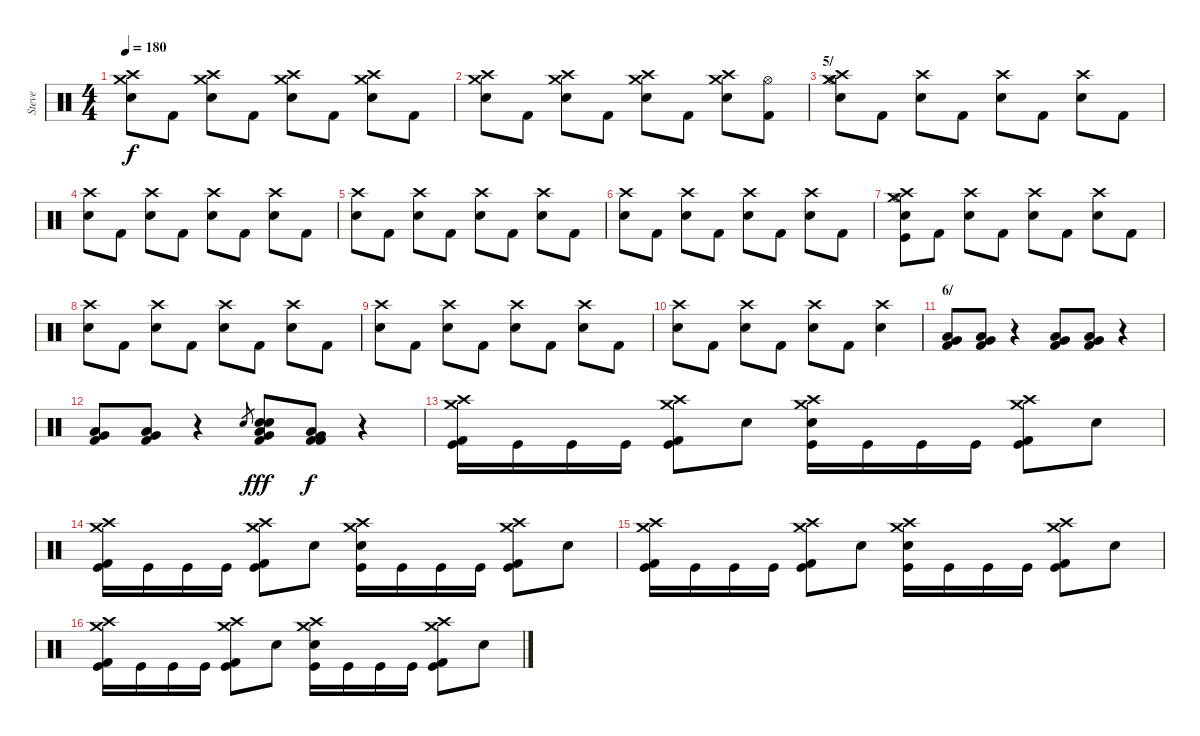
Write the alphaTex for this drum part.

\track ("Steve" "Steve") {instrument percussion}
\staff {score}
\articulation defaults
\ts (4 4)
\tempo 180
\clef neutral
\ks c
("Crash medium (hit)" "Crash high (hit)" "Electric Snare (hit)").8{dy f} "Kick (hit) 2".8 ("Crash medium (hit)" "Crash high (hit)" "Electric Snare (hit)").8 "Kick (hit) 2".8 ("Crash medium (hit)" "Crash high (hit)" "Electric Snare (hit)").8 "Kick (hit) 2".8 ("Crash high (hit)" "Crash medium (hit)" "Electric Snare (hit)").8 "Kick (hit) 2".8 |
("Crash medium (hit)" "Crash high (hit)" "Electric Snare (hit)").8 "Kick (hit) 2".8 ("Crash medium (hit)" "Crash high (hit)" "Electric Snare (hit)").8 "Kick (hit) 2".8 ("Crash medium (hit)" "Crash high (hit)" "Electric Snare (hit)").8 "Kick (hit) 2".8 ("Crash high (hit)" "Crash medium (hit)" "Electric Snare (hit)").8 ("Hi-Hat (open)" "Kick (hit) 2").8 |
\section ("" "5/")
("Crash medium (hit)" "Crash high (hit)" "Hi-Hat (open)" "Electric Snare (hit)").8 "Kick (hit) 2".8 ("Crash high (hit)" "Electric Snare (hit)").8 "Kick (hit) 2".8 ("Crash high (hit)" "Electric Snare (hit)").8 "Kick (hit) 2".8 ("Crash high (hit)" "Electric Snare (hit)").8 "Kick (hit) 2".8 |
("Crash high (hit)" "Electric Snare (hit)").8 "Kick (hit) 2".8 ("Crash high (hit)" "Electric Snare (hit)").8 "Kick (hit) 2".8 ("Crash high (hit)" "Electric Snare (hit)").8 "Kick (hit) 2".8 ("Crash high (hit)" "Electric Snare (hit)").8 "Kick (hit) 2".8 |
("Crash high (hit)" "Electric Snare (hit)").8 "Kick (hit) 2".8 ("Crash high (hit)" "Electric Snare (hit)").8 "Kick (hit) 2".8 ("Crash high (hit)" "Electric Snare (hit)").8 "Kick (hit) 2".8 ("Crash high (hit)" "Electric Snare (hit)").8 "Kick (hit) 2".8 |
("Crash high (hit)" "Electric Snare (hit)").8 "Kick (hit) 2".8 ("Crash high (hit)" "Electric Snare (hit)").8 "Kick (hit) 2".8 ("Crash high (hit)" "Electric Snare (hit)").8 "Kick (hit) 2".8 ("Crash high (hit)" "Electric Snare (hit)").8 "Kick (hit) 2".8 |
("Crash medium (hit)" "Crash high (hit)" "Hi-Hat (open)" "Kick (hit)" "Electric Snare (hit)").8 "Kick (hit) 2".8 ("Crash high (hit)" "Electric Snare (hit)").8 "Kick (hit) 2".8 ("Crash high (hit)" "Electric Snare (hit)").8 "Kick (hit) 2".8 ("Crash high (hit)" "Electric Snare (hit)").8 "Kick (hit) 2".8 |
("Crash high (hit)" "Electric Snare (hit)").8 "Kick (hit) 2".8 ("Crash high (hit)" "Electric Snare (hit)").8 "Kick (hit) 2".8 ("Crash high (hit)" "Electric Snare (hit)").8 "Kick (hit) 2".8 ("Crash high (hit)" "Electric Snare (hit)").8 "Kick (hit) 2".8 |
("Crash high (hit)" "Electric Snare (hit)").8 "Kick (hit) 2".8 ("Crash high (hit)" "Electric Snare (hit)").8 "Kick (hit) 2".8 ("Crash high (hit)" "Electric Snare (hit)").8 "Kick (hit) 2".8 ("Crash high (hit)" "Electric Snare (hit)").8 "Kick (hit) 2".8 |
("Crash high (hit)" "Electric Snare (hit)").8 "Kick (hit) 2".8 ("Crash high (hit)" "Electric Snare (hit)").8 "Kick (hit) 2".8 ("Crash high (hit)" "Electric Snare (hit)").8 "Kick (hit) 2".8 ("Crash high (hit)" "Electric Snare (hit)").4 |
\section ("" "6/ ")
("Kick (hit) 2" "Low Tom (hit)" "Very Low Tom (hit)").8 ("Kick (hit) 2" "Very Low Tom (hit)" "Low Floor Tom (hit)").8 r.4 ("Kick (hit) 2" "Low Tom (hit)" "Very Low Tom (hit)").8 ("Kick (hit) 2" "Very Low Tom (hit)" "Low Floor Tom (hit)").8 r.4 |
("Kick (hit) 2" "Low Tom (hit)" "Very Low Tom (hit)").8 ("Kick (hit) 2" "Very Low Tom (hit)" "Low Floor Tom (hit)").8 r.4 "Electric Snare (hit)".8{gr} ("Electric Snare (hit)" "Electric Snare (hit)" "Kick (hit) 2" "Low Tom (hit)" "Very Low Tom (hit)").8{dy fff} ("Kick (hit) 2" "Kick (hit) 2" "Very Low Tom (hit)" "Low Floor Tom (hit)").8{dy f} r.4 |
("Crash medium (hit)" "Crash high (hit)" "Kick (hit) 2" "Kick (hit)").16 "Kick (hit)".16 "Kick (hit)".16 "Kick (hit)".16 ("Crash high (hit)" "Crash medium (hit)" "Kick (hit) 2" "Kick (hit)").8 "Snare (hit)"{x}.8 ("Crash medium (hit)" "Crash high (hit)" "Electric Snare (hit)" "Kick (hit)").16 "Kick (hit)".16 "Kick (hit)".16 "Kick (hit)".16 ("Crash high (hit)" "Crash medium (hit)" "Kick (hit) 2" "Kick (hit)").8 "Snare (hit)"{x}.8 |
("Crash medium (hit)" "Crash high (hit)" "Kick (hit) 2" "Kick (hit)").16 "Kick (hit)".16 "Kick (hit)".16 "Kick (hit)".16 ("Crash high (hit)" "Crash medium (hit)" "Kick (hit) 2" "Kick (hit)").8 "Snare (hit)"{x}.8 ("Crash medium (hit)" "Crash high (hit)" "Electric Snare (hit)" "Kick (hit)").16 "Kick (hit)".16 "Kick (hit)".16 "Kick (hit)".16 ("Crash high (hit)" "Crash medium (hit)" "Kick (hit) 2" "Kick (hit)").8 "Snare (hit)"{x}.8 |
("Crash medium (hit)" "Crash high (hit)" "Kick (hit) 2" "Kick (hit)").16 "Kick (hit)".16 "Kick (hit)".16 "Kick (hit)".16 ("Crash high (hit)" "Crash medium (hit)" "Kick (hit) 2" "Kick (hit)").8 "Snare (hit)"{x}.8 ("Crash medium (hit)" "Crash high (hit)" "Electric Snare (hit)" "Kick (hit)").16 "Kick (hit)".16 "Kick (hit)".16 "Kick (hit)".16 ("Crash high (hit)" "Crash medium (hit)" "Kick (hit) 2" "Kick (hit)").8 "Snare (hit)"{x}.8 |
("Crash medium (hit)" "Crash high (hit)" "Kick (hit) 2" "Kick (hit)").16 "Kick (hit)".16 "Kick (hit)".16 "Kick (hit)".16 ("Crash high (hit)" "Crash medium (hit)" "Kick (hit) 2" "Kick (hit)").8 "Snare (hit)"{x}.8 ("Crash medium (hit)" "Crash high (hit)" "Electric Snare (hit)" "Kick (hit)").16 "Kick (hit)".16 "Kick (hit)".16 "Kick (hit)".16 ("Crash high (hit)" "Crash medium (hit)" "Kick (hit) 2" "Kick (hit)").8 "Snare (hit)"{x}.8
